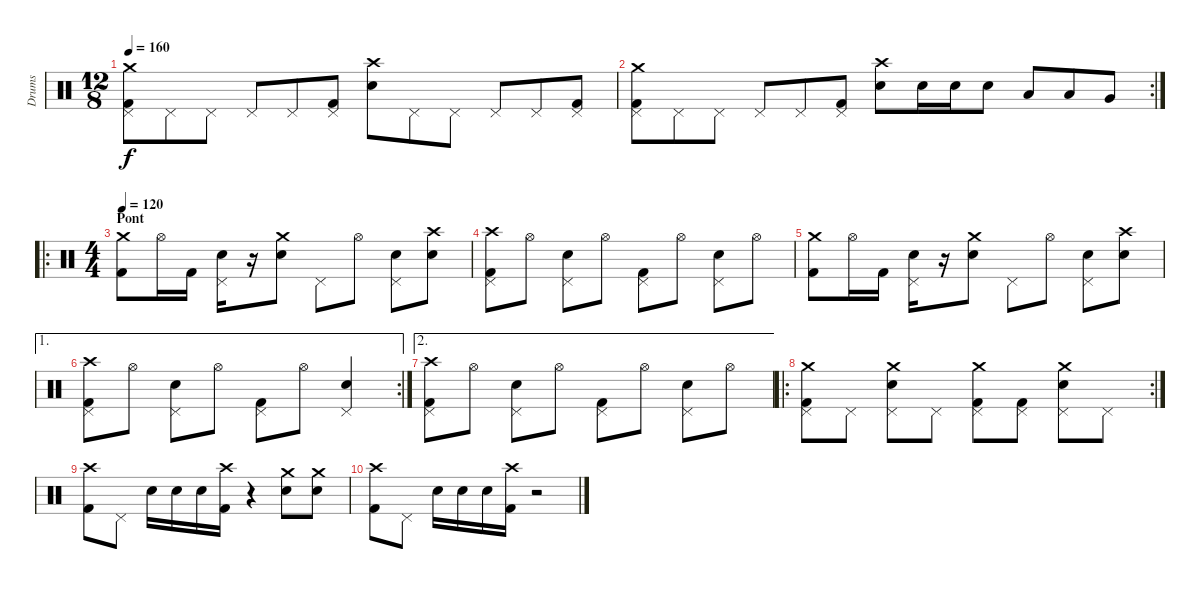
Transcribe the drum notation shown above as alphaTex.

\track ("Drums" "Drums") {instrument percussion}
\staff {score}
\articulation defaults
\ts (12 8)
\tempo 160
\clef neutral
\ks c
("Crash medium (hit)" "Pedal Hi-Hat (hit)" "Kick (hit) 2").8{dy f} "Pedal Hi-Hat (hit)".8 "Pedal Hi-Hat (hit)".8 "Pedal Hi-Hat (hit)".8 "Pedal Hi-Hat (hit)".8 ("Pedal Hi-Hat (hit)" "Kick (hit) 2").8 ("Crash high (hit)" "Electric Snare (hit)").8 "Pedal Hi-Hat (hit)".8 "Pedal Hi-Hat (hit)".8 "Pedal Hi-Hat (hit)".8 "Pedal Hi-Hat (hit)".8 ("Pedal Hi-Hat (hit)" "Kick (hit) 2").8 |
\rc 2
("Crash medium (hit)" "Pedal Hi-Hat (hit)" "Kick (hit) 2").8 "Pedal Hi-Hat (hit)".8 "Pedal Hi-Hat (hit)".8 "Pedal Hi-Hat (hit)".8 "Pedal Hi-Hat (hit)".8 ("Pedal Hi-Hat (hit)" "Kick (hit) 2").8 ("Crash high (hit)" "Electric Snare (hit)").8 "Electric Snare (hit)".16 "Electric Snare (hit)".16 "Electric Snare (hit)".8 "Low Tom (hit)".8 "Low Tom (hit)".8 "Very Low Tom (hit)".8 |
\ro
\ts (4 4)
\section ("" "Pont")
\tempo 130
\tempo 120
("Crash medium (hit)" "Kick (hit) 2").8 "Hi-Hat (open)".16 "Kick (hit) 2".16 ("Pedal Hi-Hat (hit)" "Electric Snare (hit)").16 r.16 ("Crash medium (hit)" "Electric Snare (hit)").8 "Pedal Hi-Hat (hit)".8 "Hi-Hat (open)".8 ("Pedal Hi-Hat (hit)" "Electric Snare (hit)").8 ("Crash high (hit)" "Electric Snare (hit)").8 |
("Crash high (hit)" "Pedal Hi-Hat (hit)" "Kick (hit) 2").8 "Hi-Hat (open)".8 ("Pedal Hi-Hat (hit)" "Electric Snare (hit)").8 "Hi-Hat (open)".8 ("Pedal Hi-Hat (hit)" "Kick (hit) 2").8 "Hi-Hat (open)".8 ("Pedal Hi-Hat (hit)" "Electric Snare (hit)").8 "Hi-Hat (open)".8 |
("Crash medium (hit)" "Kick (hit) 2").8 "Hi-Hat (open)".16 "Kick (hit) 2".16 ("Pedal Hi-Hat (hit)" "Electric Snare (hit)").16 r.16 ("Crash medium (hit)" "Electric Snare (hit)").8 "Pedal Hi-Hat (hit)".8 "Hi-Hat (open)".8 ("Pedal Hi-Hat (hit)" "Electric Snare (hit)").8 ("Crash high (hit)" "Electric Snare (hit)").8 |
\ae 1
\rc 2
("Crash high (hit)" "Pedal Hi-Hat (hit)" "Kick (hit) 2").8 "Hi-Hat (open)".8 ("Pedal Hi-Hat (hit)" "Electric Snare (hit)").8 "Hi-Hat (open)".8 ("Pedal Hi-Hat (hit)" "Kick (hit) 2").8 "Hi-Hat (open)".8 ("Pedal Hi-Hat (hit)" "Electric Snare (hit)").4 |
\ae 2
("Crash high (hit)" "Pedal Hi-Hat (hit)" "Kick (hit) 2").8 "Hi-Hat (open)".8 ("Pedal Hi-Hat (hit)" "Electric Snare (hit)").8 "Hi-Hat (open)".8 ("Pedal Hi-Hat (hit)" "Kick (hit) 2").8 "Hi-Hat (open)".8 ("Pedal Hi-Hat (hit)" "Electric Snare (hit)").8 "Hi-Hat (open)".8 |
\ro
\rc 2
("Crash medium (hit)" "Pedal Hi-Hat (hit)" "Kick (hit) 2").8 "Pedal Hi-Hat (hit)".8 ("Crash medium (hit)" "Pedal Hi-Hat (hit)" "Electric Snare (hit)").8 "Pedal Hi-Hat (hit)".8 ("Crash medium (hit)" "Pedal Hi-Hat (hit)" "Kick (hit) 2").8 ("Pedal Hi-Hat (hit)" "Kick (hit) 2").8 ("Crash medium (hit)" "Pedal Hi-Hat (hit)" "Electric Snare (hit)").8 "Pedal Hi-Hat (hit)".8 |
("Crash high (hit)" "Kick (hit) 2").8 "Pedal Hi-Hat (hit)".8 "Electric Snare (hit)".16 "Electric Snare (hit)".16 "Electric Snare (hit)".16 ("Crash high (hit)" "Kick (hit) 2").16 r.4 ("Crash medium (hit)" "Electric Snare (hit)").8 ("Crash medium (hit)" "Electric Snare (hit)").8 |
("Crash high (hit)" "Kick (hit) 2").8 "Pedal Hi-Hat (hit)".8 "Electric Snare (hit)".16 "Electric Snare (hit)".16 "Electric Snare (hit)".16 ("Crash high (hit)" "Kick (hit) 2").16 r.2
